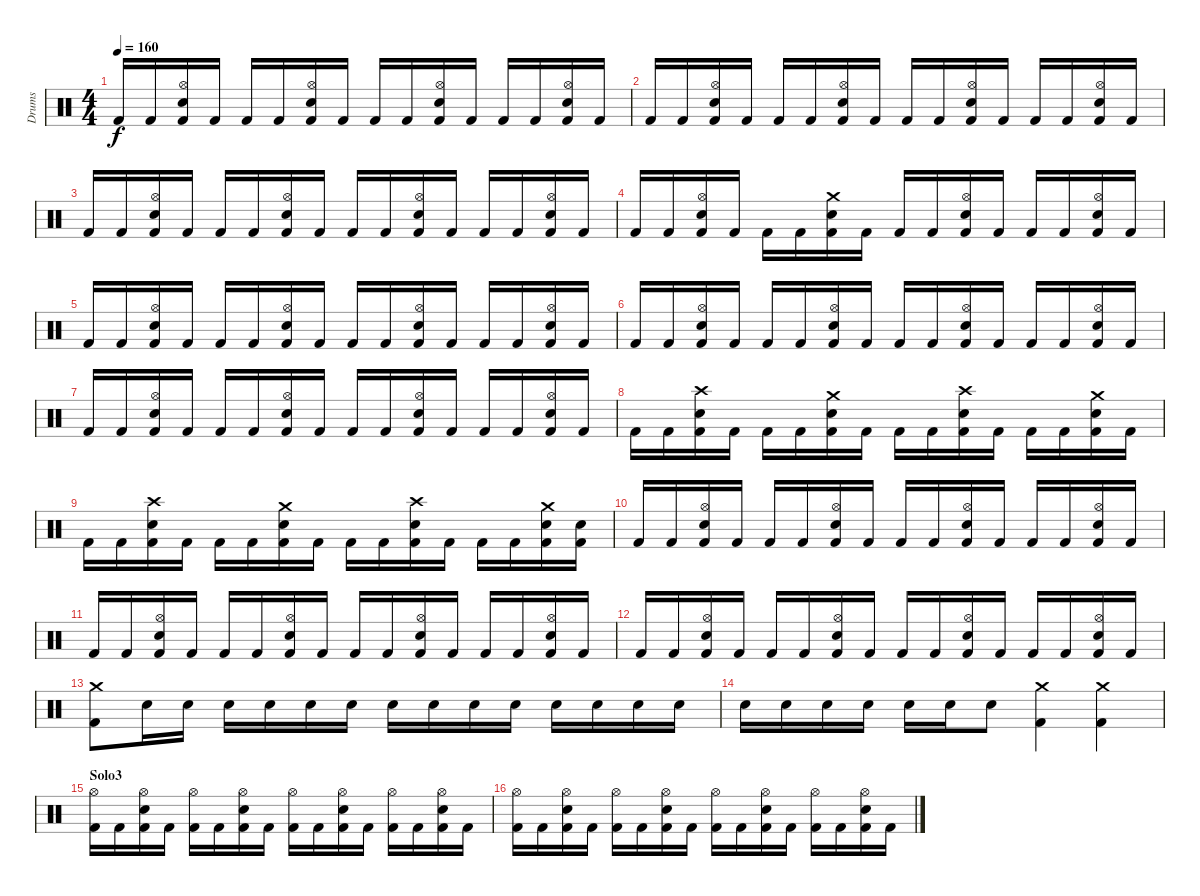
\track ("Drums" "Drums") {instrument percussion}
\staff {score}
\articulation defaults
\ts (4 4)
\tempo 160
\clef neutral
\ks c "Kick (hit) 2".16{dy f} "Kick (hit) 2".16
("Hi-Hat (open)" "Electric Snare (hit)" "Kick (hit) 2").16 "Kick (hit) 2".16 "Kick (hit) 2".16 "Kick (hit) 2".16 ("Hi-Hat (open)" "Electric Snare (hit)" "Kick (hit) 2").16 "Kick (hit) 2".16 "Kick (hit) 2".16 "Kick (hit) 2".16 ("Hi-Hat (open)" "Electric Snare (hit)" "Kick (hit) 2").16 "Kick (hit) 2".16 "Kick (hit) 2".16 "Kick (hit) 2".16 ("Hi-Hat (open)" "Electric Snare (hit)" "Kick (hit) 2").16 "Kick (hit) 2".16 |
"Kick (hit) 2".16 "Kick (hit) 2".16 ("Hi-Hat (open)" "Electric Snare (hit)" "Kick (hit) 2").16 "Kick (hit) 2".16 "Kick (hit) 2".16 "Kick (hit) 2".16 ("Hi-Hat (open)" "Electric Snare (hit)" "Kick (hit) 2").16 "Kick (hit) 2".16 "Kick (hit) 2".16 "Kick (hit) 2".16 ("Hi-Hat (open)" "Electric Snare (hit)" "Kick (hit) 2").16 "Kick (hit) 2".16 "Kick (hit) 2".16 "Kick (hit) 2".16 ("Hi-Hat (open)" "Electric Snare (hit)" "Kick (hit) 2").16 "Kick (hit) 2".16 |
"Kick (hit) 2".16 "Kick (hit) 2".16 ("Hi-Hat (open)" "Electric Snare (hit)" "Kick (hit) 2").16 "Kick (hit) 2".16 "Kick (hit) 2".16 "Kick (hit) 2".16 ("Hi-Hat (open)" "Electric Snare (hit)" "Kick (hit) 2").16 "Kick (hit) 2".16 "Kick (hit) 2".16 "Kick (hit) 2".16 ("Hi-Hat (open)" "Electric Snare (hit)" "Kick (hit) 2").16 "Kick (hit) 2".16 "Kick (hit) 2".16 "Kick (hit) 2".16 ("Hi-Hat (open)" "Electric Snare (hit)" "Kick (hit) 2").16 "Kick (hit) 2".16 |
"Kick (hit) 2".16 "Kick (hit) 2".16 ("Hi-Hat (open)" "Electric Snare (hit)" "Kick (hit) 2").16 "Kick (hit) 2".16 "Kick (hit) 2".16 "Kick (hit) 2".16 ("Crash medium (hit)" "Electric Snare (hit)" "Kick (hit) 2").16 "Kick (hit) 2".16 "Kick (hit) 2".16 "Kick (hit) 2".16 ("Hi-Hat (open)" "Electric Snare (hit)" "Kick (hit) 2").16 "Kick (hit) 2".16 "Kick (hit) 2".16 "Kick (hit) 2".16 ("Hi-Hat (open)" "Electric Snare (hit)" "Kick (hit) 2").16 "Kick (hit) 2".16 |
"Kick (hit) 2".16 "Kick (hit) 2".16 ("Hi-Hat (open)" "Electric Snare (hit)" "Kick (hit) 2").16 "Kick (hit) 2".16 "Kick (hit) 2".16 "Kick (hit) 2".16 ("Hi-Hat (open)" "Electric Snare (hit)" "Kick (hit) 2").16 "Kick (hit) 2".16 "Kick (hit) 2".16 "Kick (hit) 2".16 ("Hi-Hat (open)" "Electric Snare (hit)" "Kick (hit) 2").16 "Kick (hit) 2".16 "Kick (hit) 2".16 "Kick (hit) 2".16 ("Hi-Hat (open)" "Electric Snare (hit)" "Kick (hit) 2").16 "Kick (hit) 2".16 |
"Kick (hit) 2".16 "Kick (hit) 2".16 ("Hi-Hat (open)" "Electric Snare (hit)" "Kick (hit) 2").16 "Kick (hit) 2".16 "Kick (hit) 2".16 "Kick (hit) 2".16 ("Hi-Hat (open)" "Electric Snare (hit)" "Kick (hit) 2").16 "Kick (hit) 2".16 "Kick (hit) 2".16 "Kick (hit) 2".16 ("Hi-Hat (open)" "Electric Snare (hit)" "Kick (hit) 2").16 "Kick (hit) 2".16 "Kick (hit) 2".16 "Kick (hit) 2".16 ("Hi-Hat (open)" "Electric Snare (hit)" "Kick (hit) 2").16 "Kick (hit) 2".16 |
"Kick (hit) 2".16 "Kick (hit) 2".16 ("Hi-Hat (open)" "Electric Snare (hit)" "Kick (hit) 2").16 "Kick (hit) 2".16 "Kick (hit) 2".16 "Kick (hit) 2".16 ("Hi-Hat (open)" "Electric Snare (hit)" "Kick (hit) 2").16 "Kick (hit) 2".16 "Kick (hit) 2".16 "Kick (hit) 2".16 ("Hi-Hat (open)" "Electric Snare (hit)" "Kick (hit) 2").16 "Kick (hit) 2".16 "Kick (hit) 2".16 "Kick (hit) 2".16 ("Hi-Hat (open)" "Electric Snare (hit)" "Kick (hit) 2").16 "Kick (hit) 2".16 |
"Kick (hit) 2".16 "Kick (hit) 2".16 ("Crash high (hit)" "Electric Snare (hit)" "Kick (hit) 2").16 "Kick (hit) 2".16 "Kick (hit) 2".16 "Kick (hit) 2".16 ("Crash medium (hit)" "Electric Snare (hit)" "Kick (hit) 2").16 "Kick (hit) 2".16 "Kick (hit) 2".16 "Kick (hit) 2".16 ("Crash high (hit)" "Electric Snare (hit)" "Kick (hit) 2").16 "Kick (hit) 2".16 "Kick (hit) 2".16 "Kick (hit) 2".16 ("Crash medium (hit)" "Electric Snare (hit)" "Kick (hit) 2").16 "Kick (hit) 2".16 |
"Kick (hit) 2".16 "Kick (hit) 2".16 ("Crash high (hit)" "Electric Snare (hit)" "Kick (hit) 2").16 "Kick (hit) 2".16 "Kick (hit) 2".16 "Kick (hit) 2".16 ("Crash medium (hit)" "Electric Snare (hit)" "Kick (hit) 2").16 "Kick (hit) 2".16 "Kick (hit) 2".16 "Kick (hit) 2".16 ("Crash high (hit)" "Electric Snare (hit)" "Kick (hit) 2").16 "Kick (hit) 2".16 "Kick (hit) 2".16 "Kick (hit) 2".16 ("Crash medium (hit)" "Electric Snare (hit)" "Kick (hit) 2").16 ("Electric Snare (hit)" "Kick (hit) 2").16 |
"Kick (hit) 2".16 "Kick (hit) 2".16 ("Hi-Hat (open)" "Electric Snare (hit)" "Kick (hit) 2").16 "Kick (hit) 2".16 "Kick (hit) 2".16 "Kick (hit) 2".16 ("Hi-Hat (open)" "Electric Snare (hit)" "Kick (hit) 2").16 "Kick (hit) 2".16 "Kick (hit) 2".16 "Kick (hit) 2".16 ("Hi-Hat (open)" "Electric Snare (hit)" "Kick (hit) 2").16 "Kick (hit) 2".16 "Kick (hit) 2".16 "Kick (hit) 2".16 ("Hi-Hat (open)" "Electric Snare (hit)" "Kick (hit) 2").16 "Kick (hit) 2".16 |
"Kick (hit) 2".16 "Kick (hit) 2".16 ("Hi-Hat (open)" "Electric Snare (hit)" "Kick (hit) 2").16 "Kick (hit) 2".16 "Kick (hit) 2".16 "Kick (hit) 2".16 ("Hi-Hat (open)" "Electric Snare (hit)" "Kick (hit) 2").16 "Kick (hit) 2".16 "Kick (hit) 2".16 "Kick (hit) 2".16 ("Hi-Hat (open)" "Electric Snare (hit)" "Kick (hit) 2").16 "Kick (hit) 2".16 "Kick (hit) 2".16 "Kick (hit) 2".16 ("Hi-Hat (open)" "Electric Snare (hit)" "Kick (hit) 2").16 "Kick (hit) 2".16 |
"Kick (hit) 2".16 "Kick (hit) 2".16 ("Hi-Hat (open)" "Electric Snare (hit)" "Kick (hit) 2").16 "Kick (hit) 2".16 "Kick (hit) 2".16 "Kick (hit) 2".16 ("Hi-Hat (open)" "Electric Snare (hit)" "Kick (hit) 2").16 "Kick (hit) 2".16 "Kick (hit) 2".16 "Kick (hit) 2".16 ("Hi-Hat (open)" "Electric Snare (hit)" "Kick (hit) 2").16 "Kick (hit) 2".16 "Kick (hit) 2".16 "Kick (hit) 2".16 ("Hi-Hat (open)" "Electric Snare (hit)" "Kick (hit) 2").16 "Kick (hit) 2".16 |
("Crash medium (hit)" "Kick (hit) 2").8 "Electric Snare (hit)".16 "Electric Snare (hit)".16 "Electric Snare (hit)".16 "Electric Snare (hit)".16 "Electric Snare (hit)".16 "Electric Snare (hit)".16 "Electric Snare (hit)".16 "Electric Snare (hit)".16 "Electric Snare (hit)".16 "Electric Snare (hit)".16 "Electric Snare (hit)".16 "Electric Snare (hit)".16 "Electric Snare (hit)".16 "Electric Snare (hit)".16 |
"Electric Snare (hit)".16 "Electric Snare (hit)".16 "Electric Snare (hit)".16 "Electric Snare (hit)".16 "Electric Snare (hit)".16 "Electric Snare (hit)".16 "Electric Snare (hit)".8 ("Crash medium (hit)" "Kick (hit) 2").4 ("Crash medium (hit)" "Kick (hit) 2").4 |
\section ("" "Solo3")
("Hi-Hat (open)" "Kick (hit) 2").16 "Kick (hit) 2".16 ("Hi-Hat (open)" "Electric Snare (hit)" "Kick (hit) 2").16 "Kick (hit) 2".16 ("Hi-Hat (open)" "Kick (hit) 2").16 "Kick (hit) 2".16 ("Hi-Hat (open)" "Electric Snare (hit)" "Kick (hit) 2").16 "Kick (hit) 2".16 ("Hi-Hat (open)" "Kick (hit) 2").16 "Kick (hit) 2".16 ("Hi-Hat (open)" "Electric Snare (hit)" "Kick (hit) 2").16 "Kick (hit) 2".16 ("Hi-Hat (open)" "Kick (hit) 2").16 "Kick (hit) 2".16 ("Hi-Hat (open)" "Electric Snare (hit)" "Kick (hit) 2").16 "Kick (hit) 2".16 |
("Hi-Hat (open)" "Kick (hit) 2").16 "Kick (hit) 2".16 ("Hi-Hat (open)" "Electric Snare (hit)" "Kick (hit) 2").16 "Kick (hit) 2".16 ("Hi-Hat (open)" "Kick (hit) 2").16 "Kick (hit) 2".16 ("Hi-Hat (open)" "Electric Snare (hit)" "Kick (hit) 2").16 "Kick (hit) 2".16 ("Hi-Hat (open)" "Kick (hit) 2").16 "Kick (hit) 2".16 ("Hi-Hat (open)" "Electric Snare (hit)" "Kick (hit) 2").16 "Kick (hit) 2".16 ("Hi-Hat (open)" "Kick (hit) 2").16 "Kick (hit) 2".16 ("Hi-Hat (open)" "Electric Snare (hit)" "Kick (hit) 2").16 "Kick (hit) 2".16
